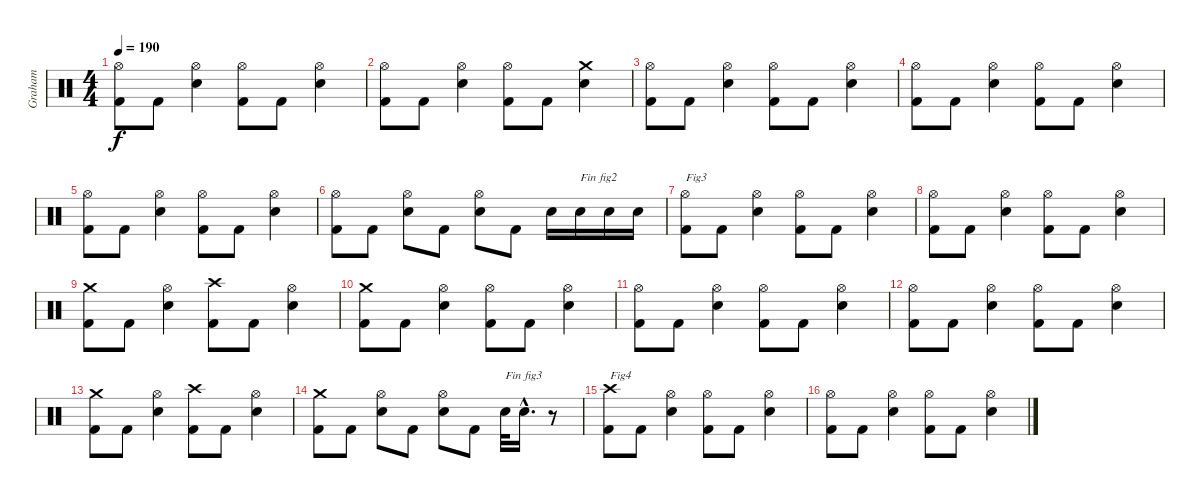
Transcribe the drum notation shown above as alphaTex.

\track ("Graham" "Graham") {instrument percussion}
\staff {score}
\articulation defaults
\ts (4 4)
\tempo 190
\clef neutral
\ks c
("Kick (hit) 2" "Hi-Hat (open)").8{dy f} "Kick (hit) 2".8 ("Electric Snare (hit)" "Hi-Hat (open)").4 ("Kick (hit) 2" "Hi-Hat (open)").8 "Kick (hit) 2".8 ("Electric Snare (hit)" "Hi-Hat (open)").4 |
("Kick (hit) 2" "Hi-Hat (open)").8 "Kick (hit) 2".8 ("Electric Snare (hit)" "Hi-Hat (open)").4 ("Kick (hit) 2" "Hi-Hat (open)").8 "Kick (hit) 2".8 ("Electric Snare (hit)" "Crash medium (hit)").4 |
("Kick (hit) 2" "Hi-Hat (open)").8 "Kick (hit) 2".8 ("Electric Snare (hit)" "Hi-Hat (open)").4 ("Kick (hit) 2" "Hi-Hat (open)").8 "Kick (hit) 2".8 ("Electric Snare (hit)" "Hi-Hat (open)").4 |
("Kick (hit) 2" "Hi-Hat (open)").8 "Kick (hit) 2".8 ("Electric Snare (hit)" "Hi-Hat (open)").4 ("Kick (hit) 2" "Hi-Hat (open)").8 "Kick (hit) 2".8 ("Electric Snare (hit)" "Hi-Hat (open)").4 |
("Kick (hit) 2" "Hi-Hat (open)").8 "Kick (hit) 2".8 ("Electric Snare (hit)" "Hi-Hat (open)").4 ("Kick (hit) 2" "Hi-Hat (open)").8 "Kick (hit) 2".8 ("Electric Snare (hit)" "Hi-Hat (open)").4 |
("Kick (hit) 2" "Hi-Hat (open)").8 "Kick (hit) 2".8 ("Electric Snare (hit)" "Hi-Hat (open)").8 "Kick (hit) 2".8 ("Electric Snare (hit)" "Hi-Hat (open)").8 "Kick (hit) 2".8 "Electric Snare (hit)".16 "Electric Snare (hit)".16{txt "Fin fig2"} "Electric Snare (hit)".16 "Electric Snare (hit)".16 |
("Kick (hit) 2" "Hi-Hat (open)").8{txt "Fig3"} "Kick (hit) 2".8 ("Electric Snare (hit)" "Hi-Hat (open)").4 ("Kick (hit) 2" "Hi-Hat (open)").8 "Kick (hit) 2".8 ("Electric Snare (hit)" "Hi-Hat (open)").4 |
("Kick (hit) 2" "Hi-Hat (open)").8 "Kick (hit) 2".8 ("Electric Snare (hit)" "Hi-Hat (open)").4 ("Kick (hit) 2" "Hi-Hat (open)").8 "Kick (hit) 2".8 ("Electric Snare (hit)" "Hi-Hat (open)").4 |
("Kick (hit) 2" "Crash medium (hit)").8 "Kick (hit) 2".8 ("Electric Snare (hit)" "Hi-Hat (open)").4 ("Kick (hit) 2" "Crash high (hit)").8 "Kick (hit) 2".8 ("Electric Snare (hit)" "Hi-Hat (open)").4 |
("Kick (hit) 2" "Crash medium (hit)").8 "Kick (hit) 2".8 ("Electric Snare (hit)" "Hi-Hat (open)").4 ("Kick (hit) 2" "Hi-Hat (open)").8 "Kick (hit) 2".8 ("Electric Snare (hit)" "Hi-Hat (open)").4 |
("Kick (hit) 2" "Hi-Hat (open)").8 "Kick (hit) 2".8 ("Electric Snare (hit)" "Hi-Hat (open)").4 ("Kick (hit) 2" "Hi-Hat (open)").8 "Kick (hit) 2".8 ("Electric Snare (hit)" "Hi-Hat (open)").4 |
("Kick (hit) 2" "Hi-Hat (open)").8 "Kick (hit) 2".8 ("Electric Snare (hit)" "Hi-Hat (open)").4 ("Kick (hit) 2" "Hi-Hat (open)").8 "Kick (hit) 2".8 ("Electric Snare (hit)" "Hi-Hat (open)").4 |
("Kick (hit) 2" "Crash medium (hit)").8 "Kick (hit) 2".8 ("Electric Snare (hit)" "Hi-Hat (open)").4 ("Kick (hit) 2" "Crash high (hit)").8 "Kick (hit) 2".8 ("Electric Snare (hit)" "Hi-Hat (open)").4 |
("Kick (hit) 2" "Crash medium (hit)").8 "Kick (hit) 2".8 ("Electric Snare (hit)" "Hi-Hat (open)").8 "Kick (hit) 2".8 ("Electric Snare (hit)" "Hi-Hat (open)").8 "Kick (hit) 2".8 "Electric Snare (hit)".32{txt "Fin fig3"} "Electric Snare (hit)"{hac}.16{d} r.8 |
("Kick (hit) 2" "Crash high (hit)").8{txt "Fig4"} "Kick (hit) 2".8 ("Electric Snare (hit)" "Hi-Hat (open)").4 ("Kick (hit) 2" "Hi-Hat (open)").8 "Kick (hit) 2".8 ("Electric Snare (hit)" "Hi-Hat (open)").4 |
("Kick (hit) 2" "Hi-Hat (open)").8 "Kick (hit) 2".8 ("Electric Snare (hit)" "Hi-Hat (open)").4 ("Kick (hit) 2" "Hi-Hat (open)").8 "Kick (hit) 2".8 ("Electric Snare (hit)" "Hi-Hat (open)").4
